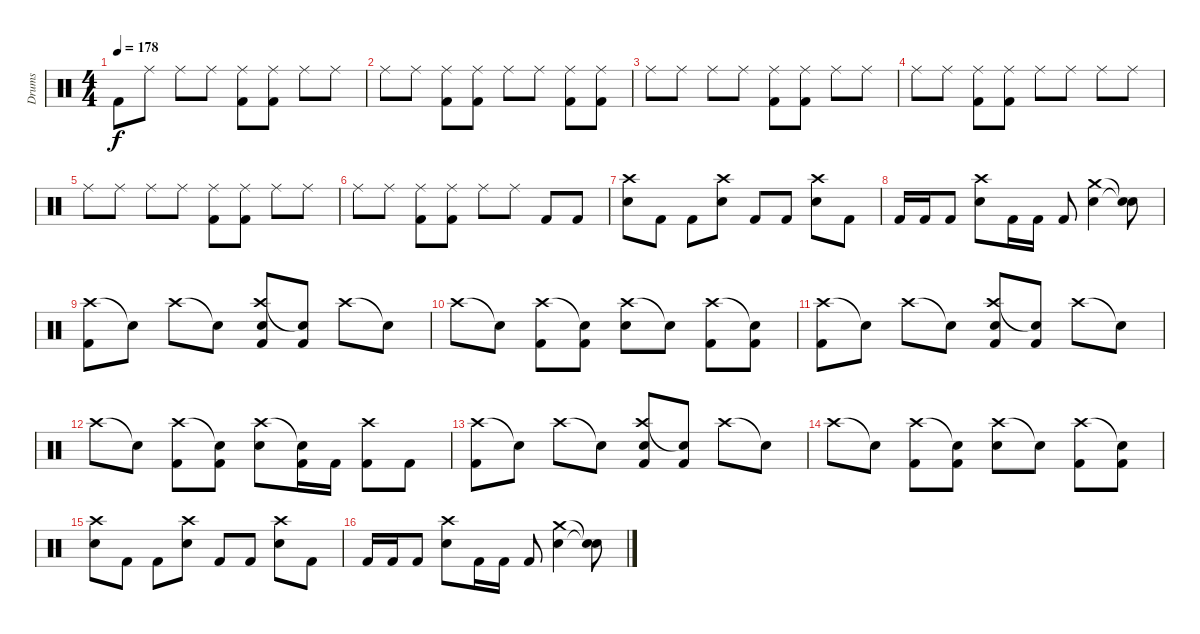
\track ("Drums" "Drums") {instrument percussion}
\staff {score}
\articulation defaults
\ts (4 4)
\tempo 178
\clef neutral
\ks c "Kick (hit) 2".8{dy f} "Ride (middle)".8 "Ride (middle)".8 "Ride (middle)".8
("Ride (middle)" "Kick (hit) 2").8 ("Ride (middle)" "Kick (hit) 2").8 "Ride (middle)".8 "Ride (middle)".8 |
"Ride (middle)".8 "Ride (middle)".8 ("Ride (middle)" "Kick (hit) 2").8 ("Ride (middle)" "Kick (hit) 2").8 "Ride (middle)".8 "Ride (middle)".8 ("Ride (middle)" "Kick (hit) 2").8 ("Ride (middle)" "Kick (hit) 2").8 |
"Ride (middle)".8 "Ride (middle)".8 "Ride (middle)".8 "Ride (middle)".8 ("Ride (middle)" "Kick (hit) 2").8 ("Ride (middle)" "Kick (hit) 2").8 "Ride (middle)".8 "Ride (middle)".8 |
"Ride (middle)".8 "Ride (middle)".8 ("Ride (middle)" "Kick (hit) 2").8 ("Ride (middle)" "Kick (hit) 2").8 "Ride (middle)".8 "Ride (middle)".8 "Ride (middle)".8 "Ride (middle)".8 |
"Ride (middle)".8 "Ride (middle)".8 "Ride (middle)".8 "Ride (middle)".8 ("Ride (middle)" "Kick (hit) 2").8 ("Ride (middle)" "Kick (hit) 2").8 "Ride (middle)".8 "Ride (middle)".8 |
"Ride (middle)".8 "Ride (middle)".8 ("Ride (middle)" "Kick (hit) 2").8 ("Ride (middle)" "Kick (hit) 2").8 "Ride (middle)".8 "Ride (middle)".8 "Kick (hit) 2".8 "Kick (hit) 2".8 |
("Crash high (hit)" "Electric Snare (hit)").8 "Kick (hit) 2".8 "Kick (hit) 2".8 ("Crash high (hit)" "Electric Snare (hit)").8 "Kick (hit) 2".8 "Kick (hit) 2".8 ("Crash high (hit)" "Electric Snare (hit)").8 "Kick (hit) 2".8 |
"Kick (hit) 2".16 "Kick (hit) 2".16 "Kick (hit) 2".8 ("Crash high (hit)" "Electric Snare (hit)").8 "Kick (hit) 2".16 "Kick (hit) 2".16 "Kick (hit) 2".8 ("Crash medium (hit)" "Electric Snare (hit)").4 ("Snare (hit)"{t} "Snare (hit)"{t}).8 |
("Crash high (hit)" "Kick (hit) 2").8 "Snare (hit)"{t}.8 "Crash high (hit)".8 "Snare (hit)"{t}.8 ("Crash high (hit)" "Electric Snare (hit)" "Kick (hit) 2").8 ("Snare (hit)"{t} "Kick (hit) 2").8 "Crash high (hit)".8 "Snare (hit)"{t}.8 |
"Crash high (hit)".8 "Snare (hit)"{t}.8 ("Crash high (hit)" "Kick (hit) 2").8 ("Snare (hit)"{t} "Kick (hit) 2").8 ("Crash high (hit)" "Electric Snare (hit)").8 "Snare (hit)"{t}.8 ("Crash high (hit)" "Kick (hit) 2").8 ("Snare (hit)"{t} "Kick (hit) 2").8 |
("Crash high (hit)" "Kick (hit) 2").8 "Snare (hit)"{t}.8 "Crash high (hit)".8 "Snare (hit)"{t}.8 ("Crash high (hit)" "Electric Snare (hit)" "Kick (hit) 2").8 ("Snare (hit)"{t} "Kick (hit) 2").8 "Crash high (hit)".8 "Snare (hit)"{t}.8 |
"Crash high (hit)".8 "Snare (hit)"{t}.8 ("Crash high (hit)" "Kick (hit) 2").8 ("Snare (hit)"{t} "Kick (hit) 2").8 ("Crash high (hit)" "Electric Snare (hit)").8 ("Snare (hit)"{t} "Kick (hit) 2").16 "Kick (hit) 2".16 ("Crash high (hit)" "Kick (hit) 2").8 "Kick (hit) 2".8 |
("Crash high (hit)" "Kick (hit) 2").8 "Snare (hit)"{t}.8 "Crash high (hit)".8 "Snare (hit)"{t}.8 ("Crash high (hit)" "Electric Snare (hit)" "Kick (hit) 2").8 ("Snare (hit)"{t} "Kick (hit) 2").8 "Crash high (hit)".8 "Snare (hit)"{t}.8 |
"Crash high (hit)".8 "Snare (hit)"{t}.8 ("Crash high (hit)" "Kick (hit) 2").8 ("Snare (hit)"{t} "Kick (hit) 2").8 ("Crash high (hit)" "Electric Snare (hit)").8 "Snare (hit)"{t}.8 ("Crash high (hit)" "Kick (hit) 2").8 ("Snare (hit)"{t} "Kick (hit) 2").8 |
("Crash high (hit)" "Electric Snare (hit)").8 "Kick (hit) 2".8 "Kick (hit) 2".8 ("Crash high (hit)" "Electric Snare (hit)").8 "Kick (hit) 2".8 "Kick (hit) 2".8 ("Crash high (hit)" "Electric Snare (hit)").8 "Kick (hit) 2".8 |
"Kick (hit) 2".16 "Kick (hit) 2".16 "Kick (hit) 2".8 ("Crash high (hit)" "Electric Snare (hit)").8 "Kick (hit) 2".16 "Kick (hit) 2".16 "Kick (hit) 2".8 ("Crash medium (hit)" "Electric Snare (hit)").4 ("Snare (hit)"{t} "Snare (hit)"{t}).8
